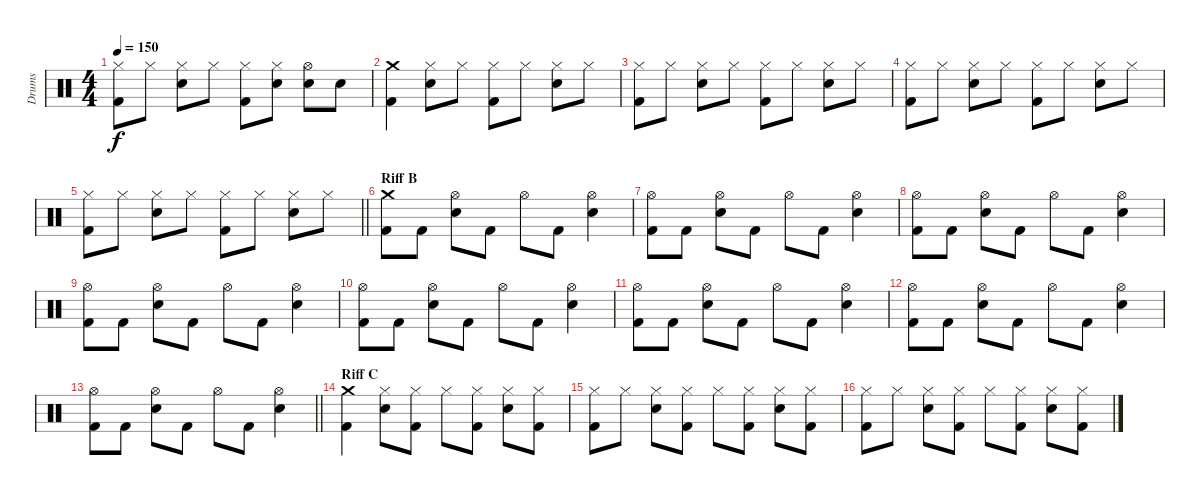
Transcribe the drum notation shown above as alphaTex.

\track ("Drums" "Drums") {instrument percussion}
\staff {score}
\articulation defaults
\ts (4 4)
\tempo 150
\clef neutral
\ks c
("Hi-Hat (closed)" "Kick (hit) 2").8{dy f} "Hi-Hat (closed)".8 ("Hi-Hat (closed)" "Electric Snare (hit)").8 "Hi-Hat (closed)".8 ("Hi-Hat (closed)" "Kick (hit) 2").8 ("Hi-Hat (closed)" "Electric Snare (hit)").8 ("Hi-Hat (open)" "Electric Snare (hit)").8 "Electric Snare (hit)".8 |
("Crash medium (hit)" "Kick (hit) 2").4 ("Hi-Hat (closed)" "Electric Snare (hit)").8 "Hi-Hat (closed)".8 ("Hi-Hat (closed)" "Kick (hit) 2").8 "Hi-Hat (closed)".8 ("Hi-Hat (closed)" "Electric Snare (hit)").8 "Hi-Hat (closed)".8 |
("Hi-Hat (closed)" "Kick (hit) 2").8 "Hi-Hat (closed)".8 ("Hi-Hat (closed)" "Electric Snare (hit)").8 "Hi-Hat (closed)".8 ("Hi-Hat (closed)" "Kick (hit) 2").8 "Hi-Hat (closed)".8 ("Hi-Hat (closed)" "Electric Snare (hit)").8 "Hi-Hat (closed)".8 |
("Hi-Hat (closed)" "Kick (hit) 2").8 "Hi-Hat (closed)".8 ("Hi-Hat (closed)" "Electric Snare (hit)").8 "Hi-Hat (closed)".8 ("Hi-Hat (closed)" "Kick (hit) 2").8 "Hi-Hat (closed)".8 ("Hi-Hat (closed)" "Electric Snare (hit)").8 "Hi-Hat (closed)".8 |
\barLineRight lightlight
("Hi-Hat (closed)" "Kick (hit) 2").8 "Hi-Hat (closed)".8 ("Hi-Hat (closed)" "Electric Snare (hit)").8 "Hi-Hat (closed)".8 ("Hi-Hat (closed)" "Kick (hit) 2").8 "Hi-Hat (closed)".8 ("Hi-Hat (closed)" "Electric Snare (hit)").8 "Hi-Hat (closed)".8 |
\section ("" "Riff B")
("Crash medium (hit)" "Kick (hit) 2").8 "Kick (hit) 2".8 ("Hi-Hat (open)" "Electric Snare (hit)").8 "Kick (hit) 2".8 "Hi-Hat (open)".8 "Kick (hit) 2".8 ("Hi-Hat (open)" "Electric Snare (hit)").4 |
("Hi-Hat (open)" "Kick (hit) 2").8 "Kick (hit) 2".8 ("Hi-Hat (open)" "Electric Snare (hit)").8 "Kick (hit) 2".8 "Hi-Hat (open)".8 "Kick (hit) 2".8 ("Hi-Hat (open)" "Electric Snare (hit)").4 |
("Hi-Hat (open)" "Kick (hit) 2").8 "Kick (hit) 2".8 ("Hi-Hat (open)" "Electric Snare (hit)").8 "Kick (hit) 2".8 "Hi-Hat (open)".8 "Kick (hit) 2".8 ("Hi-Hat (open)" "Electric Snare (hit)").4 |
("Hi-Hat (open)" "Kick (hit) 2").8 "Kick (hit) 2".8 ("Hi-Hat (open)" "Electric Snare (hit)").8 "Kick (hit) 2".8 "Hi-Hat (open)".8 "Kick (hit) 2".8 ("Hi-Hat (open)" "Electric Snare (hit)").4 |
("Hi-Hat (open)" "Kick (hit) 2").8 "Kick (hit) 2".8 ("Hi-Hat (open)" "Electric Snare (hit)").8 "Kick (hit) 2".8 "Hi-Hat (open)".8 "Kick (hit) 2".8 ("Hi-Hat (open)" "Electric Snare (hit)").4 |
("Hi-Hat (open)" "Kick (hit) 2").8 "Kick (hit) 2".8 ("Hi-Hat (open)" "Electric Snare (hit)").8 "Kick (hit) 2".8 "Hi-Hat (open)".8 "Kick (hit) 2".8 ("Hi-Hat (open)" "Electric Snare (hit)").4 |
("Hi-Hat (open)" "Kick (hit) 2").8 "Kick (hit) 2".8 ("Hi-Hat (open)" "Electric Snare (hit)").8 "Kick (hit) 2".8 "Hi-Hat (open)".8 "Kick (hit) 2".8 ("Hi-Hat (open)" "Electric Snare (hit)").4 |
\barLineRight lightlight
("Hi-Hat (open)" "Kick (hit) 2").8 "Kick (hit) 2".8 ("Hi-Hat (open)" "Electric Snare (hit)").8 "Kick (hit) 2".8 "Hi-Hat (open)".8 "Kick (hit) 2".8 ("Hi-Hat (open)" "Electric Snare (hit)").4 |
\section ("" "Riff C")
("Crash medium (hit)" "Kick (hit) 2").4 ("Hi-Hat (closed)" "Electric Snare (hit)").8 ("Hi-Hat (closed)" "Kick (hit) 2").8 "Hi-Hat (closed)".8 ("Hi-Hat (closed)" "Kick (hit) 2").8 ("Hi-Hat (closed)" "Electric Snare (hit)").8 ("Hi-Hat (closed)" "Kick (hit) 2").8 |
("Hi-Hat (closed)" "Kick (hit) 2").8 "Hi-Hat (closed)".8 ("Hi-Hat (closed)" "Electric Snare (hit)").8 ("Hi-Hat (closed)" "Kick (hit) 2").8 "Hi-Hat (closed)".8 ("Hi-Hat (closed)" "Kick (hit) 2").8 ("Hi-Hat (closed)" "Electric Snare (hit)").8 ("Hi-Hat (closed)" "Kick (hit) 2").8 |
("Hi-Hat (closed)" "Kick (hit) 2").8 "Hi-Hat (closed)".8 ("Hi-Hat (closed)" "Electric Snare (hit)").8 ("Hi-Hat (closed)" "Kick (hit) 2").8 "Hi-Hat (closed)".8 ("Hi-Hat (closed)" "Kick (hit) 2").8 ("Hi-Hat (closed)" "Electric Snare (hit)").8 ("Hi-Hat (closed)" "Kick (hit) 2").8
